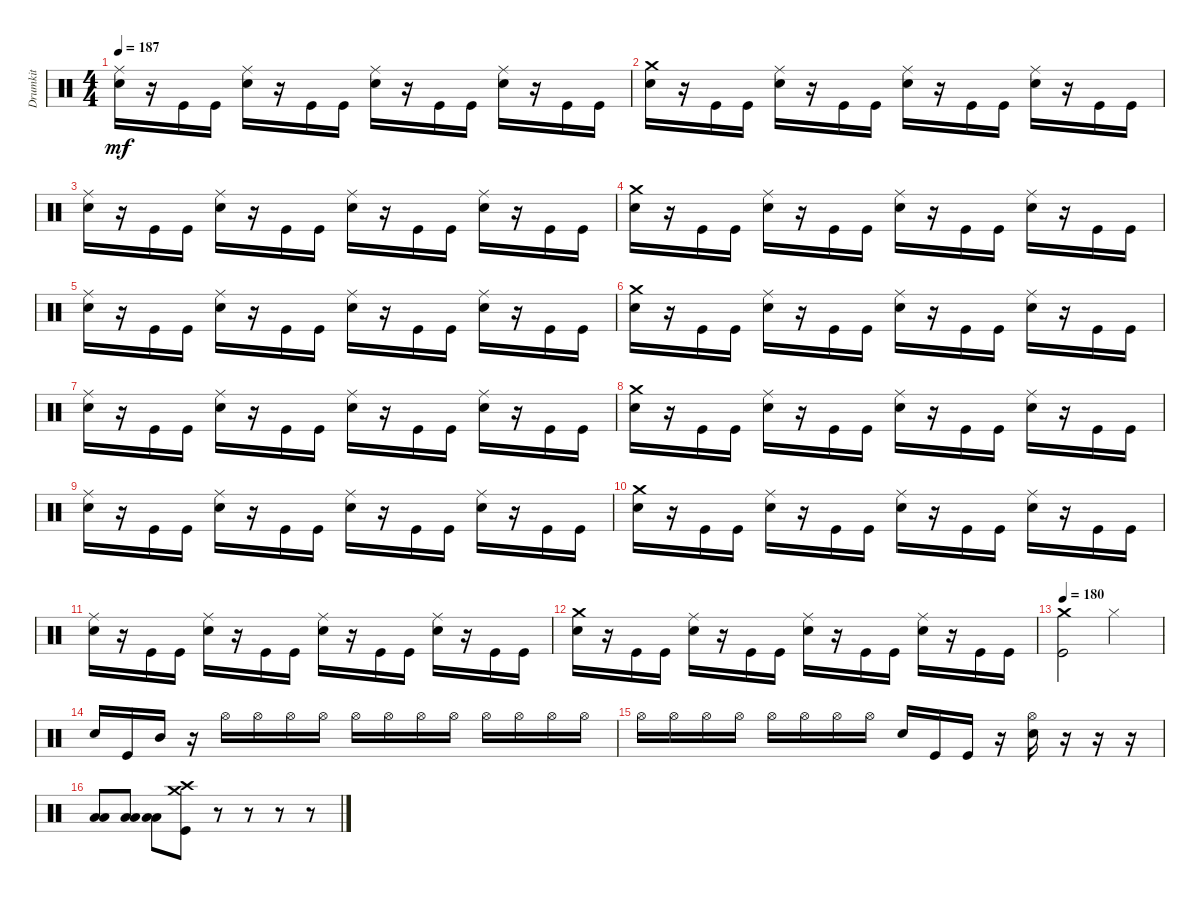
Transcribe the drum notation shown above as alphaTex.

\track ("Drumkit" "Drumkit") {instrument percussion}
\staff {score}
\articulation defaults
\ts (4 4)
\tempo 187
\clef neutral
\ks c
("Snare (hit) 2" "Ride (middle)").16{dy mf} r.16 "Kick (hit)".16 "Kick (hit)".16 ("Snare (hit) 2" "Ride (middle)").16 r.16 "Kick (hit)".16 "Kick (hit)".16 ("Snare (hit) 2" "Ride (middle)").16 r.16 "Kick (hit)".16 "Kick (hit)".16 ("Snare (hit) 2" "Ride (middle)").16 r.16 "Kick (hit)".16 "Kick (hit)".16 |
("Snare (hit) 2" "Crash medium (hit)").16 r.16 "Kick (hit)".16 "Kick (hit)".16 ("Snare (hit) 2" "Ride (middle)").16 r.16 "Kick (hit)".16 "Kick (hit)".16 ("Snare (hit) 2" "Ride (middle)").16 r.16 "Kick (hit)".16 "Kick (hit)".16 ("Snare (hit) 2" "Ride (middle)").16 r.16 "Kick (hit)".16 "Kick (hit)".16 |
("Snare (hit) 2" "Ride (middle)").16 r.16 "Kick (hit)".16 "Kick (hit)".16 ("Snare (hit) 2" "Ride (middle)").16 r.16 "Kick (hit)".16 "Kick (hit)".16 ("Snare (hit) 2" "Ride (middle)").16 r.16 "Kick (hit)".16 "Kick (hit)".16 ("Snare (hit) 2" "Ride (middle)").16 r.16 "Kick (hit)".16 "Kick (hit)".16 |
("Snare (hit) 2" "Crash medium (hit)").16 r.16 "Kick (hit)".16 "Kick (hit)".16 ("Snare (hit) 2" "Ride (middle)").16 r.16 "Kick (hit)".16 "Kick (hit)".16 ("Snare (hit) 2" "Ride (middle)").16 r.16 "Kick (hit)".16 "Kick (hit)".16 ("Snare (hit) 2" "Ride (middle)").16 r.16 "Kick (hit)".16 "Kick (hit)".16 |
("Snare (hit) 2" "Ride (middle)").16 r.16 "Kick (hit)".16 "Kick (hit)".16 ("Snare (hit) 2" "Ride (middle)").16 r.16 "Kick (hit)".16 "Kick (hit)".16 ("Snare (hit) 2" "Ride (middle)").16 r.16 "Kick (hit)".16 "Kick (hit)".16 ("Snare (hit) 2" "Ride (middle)").16 r.16 "Kick (hit)".16 "Kick (hit)".16 |
("Snare (hit) 2" "Crash medium (hit)").16 r.16 "Kick (hit)".16 "Kick (hit)".16 ("Snare (hit) 2" "Ride (middle)").16 r.16 "Kick (hit)".16 "Kick (hit)".16 ("Snare (hit) 2" "Ride (middle)").16 r.16 "Kick (hit)".16 "Kick (hit)".16 ("Snare (hit) 2" "Ride (middle)").16 r.16 "Kick (hit)".16 "Kick (hit)".16 |
("Snare (hit) 2" "Ride (middle)").16 r.16 "Kick (hit)".16 "Kick (hit)".16 ("Snare (hit) 2" "Ride (middle)").16 r.16 "Kick (hit)".16 "Kick (hit)".16 ("Snare (hit) 2" "Ride (middle)").16 r.16 "Kick (hit)".16 "Kick (hit)".16 ("Snare (hit) 2" "Ride (middle)").16 r.16 "Kick (hit)".16 "Kick (hit)".16 |
("Snare (hit) 2" "Crash medium (hit)").16 r.16 "Kick (hit)".16 "Kick (hit)".16 ("Snare (hit) 2" "Ride (middle)").16 r.16 "Kick (hit)".16 "Kick (hit)".16 ("Snare (hit) 2" "Ride (middle)").16 r.16 "Kick (hit)".16 "Kick (hit)".16 ("Snare (hit) 2" "Ride (middle)").16 r.16 "Kick (hit)".16 "Kick (hit)".16 |
("Snare (hit) 2" "Ride (middle)").16 r.16 "Kick (hit)".16 "Kick (hit)".16 ("Snare (hit) 2" "Ride (middle)").16 r.16 "Kick (hit)".16 "Kick (hit)".16 ("Snare (hit) 2" "Ride (middle)").16 r.16 "Kick (hit)".16 "Kick (hit)".16 ("Snare (hit) 2" "Ride (middle)").16 r.16 "Kick (hit)".16 "Kick (hit)".16 |
("Snare (hit) 2" "Crash medium (hit)").16 r.16 "Kick (hit)".16 "Kick (hit)".16 ("Snare (hit) 2" "Ride (middle)").16 r.16 "Kick (hit)".16 "Kick (hit)".16 ("Snare (hit) 2" "Ride (middle)").16 r.16 "Kick (hit)".16 "Kick (hit)".16 ("Snare (hit) 2" "Ride (middle)").16 r.16 "Kick (hit)".16 "Kick (hit)".16 |
("Snare (hit) 2" "Ride (middle)").16 r.16 "Kick (hit)".16 "Kick (hit)".16 ("Snare (hit) 2" "Ride (middle)").16 r.16 "Kick (hit)".16 "Kick (hit)".16 ("Snare (hit) 2" "Ride (middle)").16 r.16 "Kick (hit)".16 "Kick (hit)".16 ("Snare (hit) 2" "Ride (middle)").16 r.16 "Kick (hit)".16 "Kick (hit)".16 |
("Snare (hit) 2" "Crash medium (hit)").16 r.16 "Kick (hit)".16 "Kick (hit)".16 ("Snare (hit) 2" "Ride (middle)").16 r.16 "Kick (hit)".16 "Kick (hit)".16 ("Snare (hit) 2" "Ride (middle)").16 r.16 "Kick (hit)".16 "Kick (hit)".16 ("Snare (hit) 2" "Ride (middle)").16 r.16 "Kick (hit)".16 "Kick (hit)".16 |
\tempo 180
("Kick (hit)" "Crash medium (hit)").2 "Hi-Hat (closed)".2 |
"Snare (hit) 2".16 "Kick (hit)".16 "Mid Tom (hit)".16 r.16 "Hi-Hat (open)".16 "Hi-Hat (open)".16 "Hi-Hat (open)".16 "Hi-Hat (open)".16 "Hi-Hat (open)".16 "Hi-Hat (open)".16 "Hi-Hat (open)".16 "Hi-Hat (open)".16 "Hi-Hat (open)".16 "Hi-Hat (open)".16 "Hi-Hat (open)".16 "Hi-Hat (open)".16 |
"Hi-Hat (open)".16 "Hi-Hat (open)".16 "Hi-Hat (open)".16 "Hi-Hat (open)".16 "Hi-Hat (open)".16 "Hi-Hat (open)".16 "Hi-Hat (open)".16 "Hi-Hat (open)".16 "Snare (hit) 2".16 "Kick (hit)".16 "Kick (hit)".16 r.16 ("Hi-Hat (open)" "Snare (hit) 2").16 r.16 r.16 r.16 |
("Low Floor Tom (hit)" "Low Tom (hit)").8 ("Low Floor Tom (hit)" "Low Tom (hit)").8 ("Low Floor Tom (hit)" "Low Tom (hit)").8 ("Kick (hit)" "Crash medium (hit)" "Crash high (hit)").8 r.8 r.8 r.8 r.8
